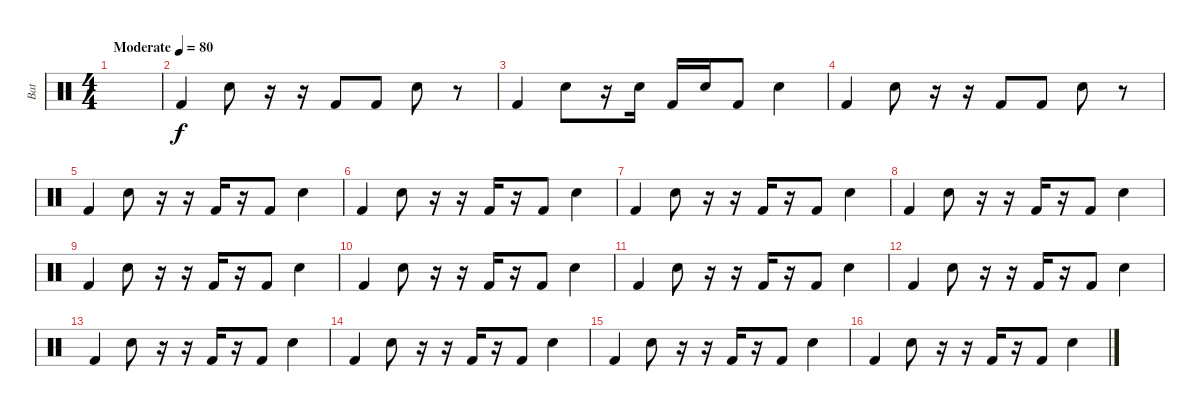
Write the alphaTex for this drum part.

\track ("Bat" "Bat") {instrument percussion}
\staff {score}
\articulation defaults
\ts (4 4)
\tempo (80 "Moderate")
\clef neutral
\ks c
|
"Kick (hit) 2".4 "Snare (hit) 2".8 r.16 r.16 "Kick (hit) 2".8 "Kick (hit) 2".8 "Snare (hit) 2".8 r.8 |
"Kick (hit) 2".4 "Snare (hit) 2".8 r.16 "Electric Snare (hit)".16 "Kick (hit) 2".16 "Electric Snare (hit)".16 "Kick (hit) 2".8 "Snare (hit) 2".4 |
"Kick (hit) 2".4 "Snare (hit) 2".8 r.16 r.16 "Kick (hit) 2".8 "Kick (hit) 2".8 "Snare (hit) 2".8 r.8 |
"Kick (hit) 2".4 "Snare (hit) 2".8 r.16 r.16 "Kick (hit) 2".16 r.16 "Kick (hit) 2".8 "Snare (hit) 2".4 |
"Kick (hit) 2".4 "Snare (hit) 2".8 r.16 r.16 "Kick (hit) 2".16 r.16 "Kick (hit) 2".8 "Snare (hit) 2".4 |
"Kick (hit) 2".4 "Snare (hit) 2".8 r.16 r.16 "Kick (hit) 2".16 r.16 "Kick (hit) 2".8 "Snare (hit) 2".4 |
"Kick (hit) 2".4 "Snare (hit) 2".8 r.16 r.16 "Kick (hit) 2".16 r.16 "Kick (hit) 2".8 "Snare (hit) 2".4 |
"Kick (hit) 2".4 "Snare (hit) 2".8 r.16 r.16 "Kick (hit) 2".16 r.16 "Kick (hit) 2".8 "Snare (hit) 2".4 |
"Kick (hit) 2".4 "Snare (hit) 2".8 r.16 r.16 "Kick (hit) 2".16 r.16 "Kick (hit) 2".8 "Snare (hit) 2".4 |
"Kick (hit) 2".4 "Snare (hit) 2".8 r.16 r.16 "Kick (hit) 2".16 r.16 "Kick (hit) 2".8 "Snare (hit) 2".4 |
"Kick (hit) 2".4 "Snare (hit) 2".8 r.16 r.16 "Kick (hit) 2".16 r.16 "Kick (hit) 2".8 "Snare (hit) 2".4 |
"Kick (hit) 2".4 "Snare (hit) 2".8 r.16 r.16 "Kick (hit) 2".16 r.16 "Kick (hit) 2".8 "Snare (hit) 2".4 |
"Kick (hit) 2".4 "Snare (hit) 2".8 r.16 r.16 "Kick (hit) 2".16 r.16 "Kick (hit) 2".8 "Snare (hit) 2".4 |
"Kick (hit) 2".4 "Snare (hit) 2".8 r.16 r.16 "Kick (hit) 2".16 r.16 "Kick (hit) 2".8 "Snare (hit) 2".4 |
"Kick (hit) 2".4 "Snare (hit) 2".8 r.16 r.16 "Kick (hit) 2".16 r.16 "Kick (hit) 2".8 "Snare (hit) 2".4
